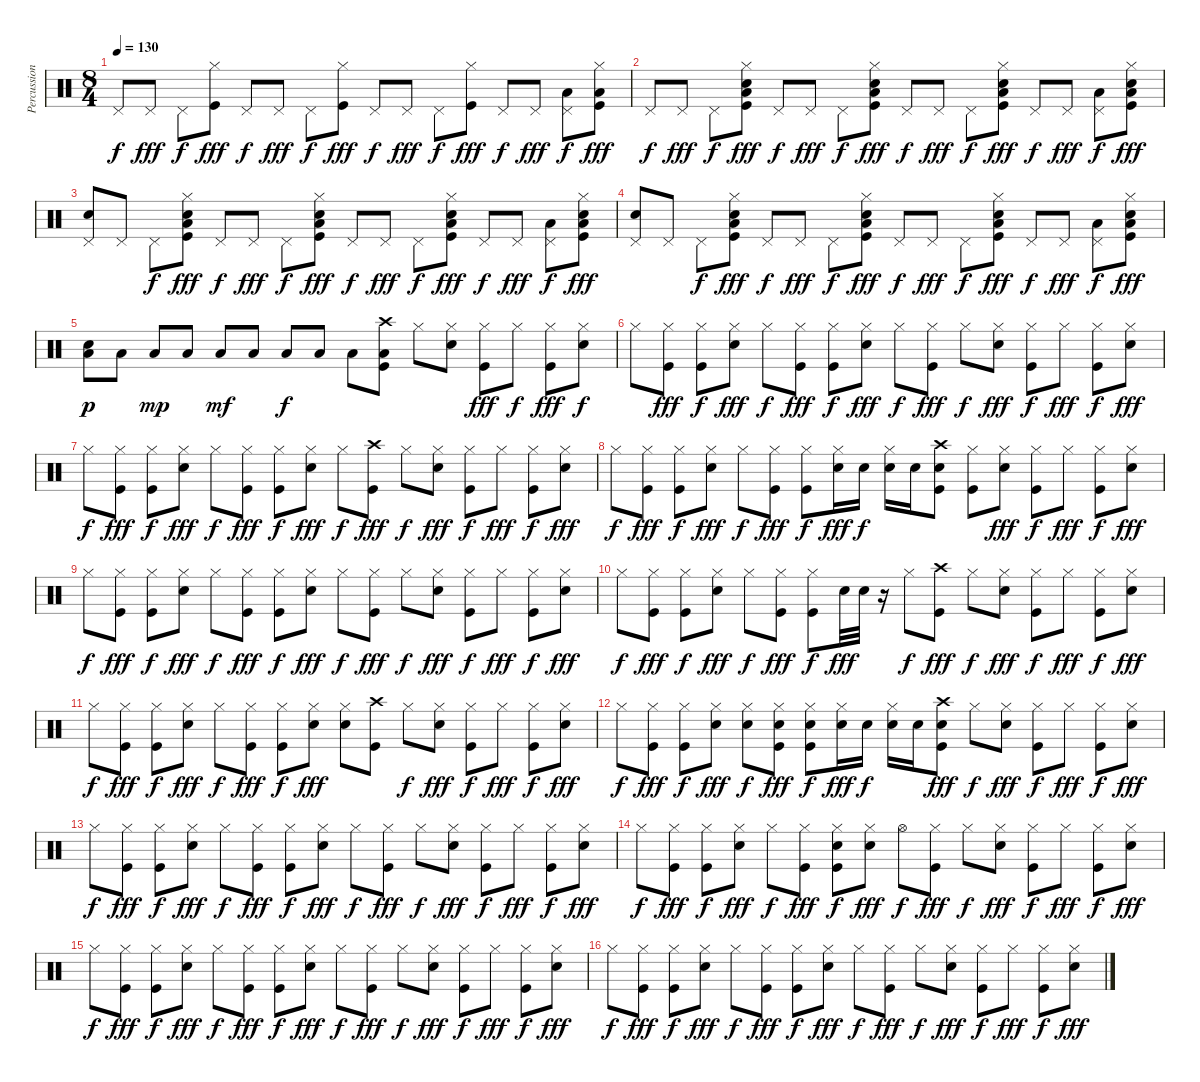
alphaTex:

\track ("Percussion" "Percussion") {instrument percussion}
\staff {score}
\articulation defaults
\ts (8 4)
\tempo 130
\clef neutral
\ks c "Pedal Hi-Hat (hit)".8{dy f} "Pedal Hi-Hat (hit)".8{dy fff} "Pedal Hi-Hat (hit)".8{dy f}
("Hi-Hat (closed)" "Kick (hit)").8{dy fff} "Pedal Hi-Hat (hit)".8{dy f} "Pedal Hi-Hat (hit)".8{dy fff} "Pedal Hi-Hat (hit)".8{dy f} ("Hi-Hat (closed)" "Kick (hit)").8{dy fff} "Pedal Hi-Hat (hit)".8{dy f} "Pedal Hi-Hat (hit)".8{dy fff} "Pedal Hi-Hat (hit)".8{dy f} ("Hi-Hat (closed)" "Kick (hit)").8{dy fff} "Pedal Hi-Hat (hit)".8{dy f} "Pedal Hi-Hat (hit)".8{dy fff} ("Pedal Hi-Hat (hit)" "Low Tom (hit)").8{dy f} ("Hi-Hat (closed)" "Low Floor Tom (hit)" "Kick (hit)").8{dy fff} |
"Pedal Hi-Hat (hit)".8{dy f} "Pedal Hi-Hat (hit)".8{dy fff} "Pedal Hi-Hat (hit)".8{dy f} ("Hi-Hat (closed)" "Hand Clap (hit)" "Low Floor Tom (hit)" "Kick (hit)").8{dy fff} "Pedal Hi-Hat (hit)".8{dy f} "Pedal Hi-Hat (hit)".8{dy fff} "Pedal Hi-Hat (hit)".8{dy f} ("Hi-Hat (closed)" "Hand Clap (hit)" "Low Floor Tom (hit)" "Kick (hit)").8{dy fff} "Pedal Hi-Hat (hit)".8{dy f} "Pedal Hi-Hat (hit)".8{dy fff} "Pedal Hi-Hat (hit)".8{dy f} ("Hi-Hat (closed)" "Hand Clap (hit)" "Low Floor Tom (hit)" "Kick (hit)").8{dy fff} "Pedal Hi-Hat (hit)".8{dy f} "Pedal Hi-Hat (hit)".8{dy fff} ("Pedal Hi-Hat (hit)" "Low Tom (hit)").8{dy f} ("Hi-Hat (closed)" "Hand Clap (hit)" "Low Floor Tom (hit)" "Kick (hit)").8{dy fff} |
("Pedal Hi-Hat (hit)" "Hand Clap (hit)").8 "Pedal Hi-Hat (hit)".8 "Pedal Hi-Hat (hit)".8{dy f} ("Hi-Hat (closed)" "Hand Clap (hit)" "Low Floor Tom (hit)" "Kick (hit)").8{dy fff} "Pedal Hi-Hat (hit)".8{dy f} "Pedal Hi-Hat (hit)".8{dy fff} "Pedal Hi-Hat (hit)".8{dy f} ("Hi-Hat (closed)" "Hand Clap (hit)" "Low Floor Tom (hit)" "Kick (hit)").8{dy fff} "Pedal Hi-Hat (hit)".8{dy f} "Pedal Hi-Hat (hit)".8{dy fff} "Pedal Hi-Hat (hit)".8{dy f} ("Hi-Hat (closed)" "Hand Clap (hit)" "Low Floor Tom (hit)" "Kick (hit)").8{dy fff} "Pedal Hi-Hat (hit)".8{dy f} "Pedal Hi-Hat (hit)".8{dy fff} ("Pedal Hi-Hat (hit)" "Low Tom (hit)").8{dy f} ("Hi-Hat (closed)" "Hand Clap (hit)" "Low Floor Tom (hit)" "Kick (hit)").8{dy fff} |
("Pedal Hi-Hat (hit)" "Hand Clap (hit)").8 "Pedal Hi-Hat (hit)".8 "Pedal Hi-Hat (hit)".8{dy f} ("Hi-Hat (closed)" "Hand Clap (hit)" "Low Floor Tom (hit)" "Kick (hit)").8{dy fff} "Pedal Hi-Hat (hit)".8{dy f} "Pedal Hi-Hat (hit)".8{dy fff} "Pedal Hi-Hat (hit)".8{dy f} ("Hi-Hat (closed)" "Hand Clap (hit)" "Low Floor Tom (hit)" "Kick (hit)").8{dy fff} "Pedal Hi-Hat (hit)".8{dy f} "Pedal Hi-Hat (hit)".8{dy fff} "Pedal Hi-Hat (hit)".8{dy f} ("Hi-Hat (closed)" "Hand Clap (hit)" "Low Floor Tom (hit)" "Kick (hit)").8{dy fff} "Pedal Hi-Hat (hit)".8{dy f} "Pedal Hi-Hat (hit)".8{dy fff} ("Pedal Hi-Hat (hit)" "Low Tom (hit)").8{dy f} ("Hi-Hat (closed)" "Hand Clap (hit)" "Low Floor Tom (hit)" "Kick (hit)").8{dy fff} |
("Hand Clap (hit)" "Low Floor Tom (hit)").8{dy p} "Low Floor Tom (hit)".8 "Low Floor Tom (hit)".8{dy mp} "Low Floor Tom (hit)".8 "Low Floor Tom (hit)".8{dy mf} "Low Floor Tom (hit)".8 "Low Floor Tom (hit)".8{dy f} "Low Floor Tom (hit)".8 "Low Floor Tom (hit)".8 ("Crash high (hit)" "Low Floor Tom (hit)" "Kick (hit)").8 "Hi-Hat (closed)".8 ("Hi-Hat (closed)" "Electric Snare (hit)").8 ("Hi-Hat (closed)" "Kick (hit)").8{dy fff} "Hi-Hat (closed)".8{dy f} ("Hi-Hat (closed)" "Kick (hit)").8{dy fff} ("Hi-Hat (closed)" "Electric Snare (hit)").8{dy f} |
"Hi-Hat (closed)".8 ("Hi-Hat (closed)" "Kick (hit)").8{dy fff} ("Hi-Hat (closed)" "Kick (hit)").8{dy f} ("Hi-Hat (closed)" "Electric Snare (hit)").8{dy fff} "Hi-Hat (closed)".8{dy f} ("Hi-Hat (closed)" "Kick (hit)").8{dy fff} ("Hi-Hat (closed)" "Kick (hit)").8{dy f} ("Hi-Hat (closed)" "Electric Snare (hit)").8{dy fff} "Hi-Hat (closed)".8{dy f} ("Hi-Hat (closed)" "Kick (hit)").8{dy fff} "Hi-Hat (closed)".8{dy f} ("Hi-Hat (closed)" "Electric Snare (hit)").8{dy fff} ("Hi-Hat (closed)" "Kick (hit)").8{dy f} "Hi-Hat (closed)".8{dy fff} ("Hi-Hat (closed)" "Kick (hit)").8{dy f} ("Hi-Hat (closed)" "Electric Snare (hit)").8{dy fff} |
"Hi-Hat (closed)".8{dy f} ("Hi-Hat (closed)" "Kick (hit)").8{dy fff} ("Hi-Hat (closed)" "Kick (hit)").8{dy f} ("Hi-Hat (closed)" "Electric Snare (hit)").8{dy fff} "Hi-Hat (closed)".8{dy f} ("Hi-Hat (closed)" "Kick (hit)").8{dy fff} ("Hi-Hat (closed)" "Kick (hit)").8{dy f} ("Hi-Hat (closed)" "Electric Snare (hit)").8{dy fff} "Hi-Hat (closed)".8{dy f} ("Crash high (hit)" "Kick (hit)").8{dy fff} "Hi-Hat (closed)".8{dy f} ("Hi-Hat (closed)" "Electric Snare (hit)").8{dy fff} ("Hi-Hat (closed)" "Kick (hit)").8{dy f} "Hi-Hat (closed)".8{dy fff} ("Hi-Hat (closed)" "Kick (hit)").8{dy f} ("Hi-Hat (closed)" "Electric Snare (hit)").8{dy fff} |
"Hi-Hat (closed)".8{dy f} ("Hi-Hat (closed)" "Kick (hit)").8{dy fff} ("Hi-Hat (closed)" "Kick (hit)").8{dy f} ("Hi-Hat (closed)" "Electric Snare (hit)").8{dy fff} "Hi-Hat (closed)".8{dy f} ("Hi-Hat (closed)" "Kick (hit)").8{dy fff} ("Hi-Hat (closed)" "Kick (hit)").8{dy f} ("Hi-Hat (closed)" "Electric Snare (hit)").16{dy fff} "Electric Snare (hit)".16{dy f} ("Hi-Hat (closed)" "Electric Snare (hit)").16 "Electric Snare (hit)".16 ("Crash high (hit)" "Electric Snare (hit)" "Kick (hit)").8 ("Hi-Hat (closed)" "Kick (hit)").8 ("Hi-Hat (closed)" "Electric Snare (hit)").8{dy fff} ("Hi-Hat (closed)" "Kick (hit)").8{dy f} "Hi-Hat (closed)".8{dy fff} ("Hi-Hat (closed)" "Kick (hit)").8{dy f} ("Hi-Hat (closed)" "Electric Snare (hit)").8{dy fff} |
"Hi-Hat (closed)".8{dy f} ("Hi-Hat (closed)" "Kick (hit)").8{dy fff} ("Hi-Hat (closed)" "Kick (hit)").8{dy f} ("Hi-Hat (closed)" "Electric Snare (hit)").8{dy fff} "Hi-Hat (closed)".8{dy f} ("Hi-Hat (closed)" "Kick (hit)").8{dy fff} ("Hi-Hat (closed)" "Kick (hit)").8{dy f} ("Hi-Hat (closed)" "Electric Snare (hit)").8{dy fff} "Hi-Hat (closed)".8{dy f} ("Hi-Hat (closed)" "Kick (hit)").8{dy fff} "Hi-Hat (closed)".8{dy f} ("Hi-Hat (closed)" "Electric Snare (hit)").8{dy fff} ("Hi-Hat (closed)" "Kick (hit)").8{dy f} "Hi-Hat (closed)".8{dy fff} ("Hi-Hat (closed)" "Kick (hit)").8{dy f} ("Hi-Hat (closed)" "Electric Snare (hit)").8{dy fff} |
"Hi-Hat (closed)".8{dy f} ("Hi-Hat (closed)" "Kick (hit)").8{dy fff} ("Hi-Hat (closed)" "Kick (hit)").8{dy f} ("Hi-Hat (closed)" "Electric Snare (hit)").8{dy fff} "Hi-Hat (closed)".8{dy f} ("Hi-Hat (closed)" "Kick (hit)").8{dy fff} ("Hi-Hat (closed)" "Kick (hit)").8{dy f} "Electric Snare (hit)".32{dy fff} "Electric Snare (hit)".32 r.16 "Hi-Hat (closed)".8{dy f} ("Crash high (hit)" "Kick (hit)").8{dy fff} "Hi-Hat (closed)".8{dy f} ("Hi-Hat (closed)" "Electric Snare (hit)").8{dy fff} ("Hi-Hat (closed)" "Kick (hit)").8{dy f} "Hi-Hat (closed)".8{dy fff} ("Hi-Hat (closed)" "Kick (hit)").8{dy f} ("Hi-Hat (closed)" "Electric Snare (hit)").8{dy fff} |
"Hi-Hat (closed)".8{dy f} ("Hi-Hat (closed)" "Kick (hit)").8{dy fff} ("Hi-Hat (closed)" "Kick (hit)").8{dy f} ("Hi-Hat (closed)" "Electric Snare (hit)").8{dy fff} "Hi-Hat (closed)".8{dy f} ("Hi-Hat (closed)" "Kick (hit)").8{dy fff} ("Hi-Hat (closed)" "Kick (hit)").8{dy f} ("Hi-Hat (closed)" "Electric Snare (hit)").8{dy fff} ("Hi-Hat (closed)" "Electric Snare (hit)").8 ("Crash high (hit)" "Kick (hit)").8 "Hi-Hat (closed)".8{dy f} ("Hi-Hat (closed)" "Electric Snare (hit)").8{dy fff} ("Hi-Hat (closed)" "Kick (hit)").8{dy f} "Hi-Hat (closed)".8{dy fff} ("Hi-Hat (closed)" "Kick (hit)").8{dy f} ("Hi-Hat (closed)" "Electric Snare (hit)").8{dy fff} |
"Hi-Hat (closed)".8{dy f} ("Hi-Hat (closed)" "Kick (hit)").8{dy fff} ("Hi-Hat (closed)" "Kick (hit)").8{dy f} ("Hi-Hat (closed)" "Electric Snare (hit)").8{dy fff} ("Hi-Hat (closed)" "Electric Snare (hit)").8{dy f} ("Hi-Hat (closed)" "Electric Snare (hit)" "Kick (hit)").8{dy fff} ("Hi-Hat (closed)" "Electric Snare (hit)" "Kick (hit)").8{dy f} ("Hi-Hat (closed)" "Electric Snare (hit)").16{dy fff} "Electric Snare (hit)".16{dy f} ("Hi-Hat (closed)" "Electric Snare (hit)").16 "Electric Snare (hit)".16 ("Crash high (hit)" "Electric Snare (hit)" "Kick (hit)").8{dy fff} "Hi-Hat (closed)".8{dy f} ("Hi-Hat (closed)" "Electric Snare (hit)").8{dy fff} ("Hi-Hat (closed)" "Kick (hit)").8{dy f} "Hi-Hat (closed)".8{dy fff} ("Hi-Hat (closed)" "Kick (hit)").8{dy f} ("Hi-Hat (closed)" "Electric Snare (hit)").8{dy fff} |
"Hi-Hat (closed)".8{dy f} ("Hi-Hat (closed)" "Kick (hit)").8{dy fff} ("Hi-Hat (closed)" "Kick (hit)").8{dy f} ("Hi-Hat (closed)" "Electric Snare (hit)").8{dy fff} "Hi-Hat (closed)".8{dy f} ("Hi-Hat (closed)" "Kick (hit)").8{dy fff} ("Hi-Hat (closed)" "Kick (hit)").8{dy f} ("Hi-Hat (closed)" "Electric Snare (hit)").8{dy fff} "Hi-Hat (closed)".8{dy f} ("Hi-Hat (closed)" "Kick (hit)").8{dy fff} "Hi-Hat (closed)".8{dy f} ("Hi-Hat (closed)" "Electric Snare (hit)").8{dy fff} ("Hi-Hat (closed)" "Kick (hit)").8{dy f} "Hi-Hat (closed)".8{dy fff} ("Hi-Hat (closed)" "Kick (hit)").8{dy f} ("Hi-Hat (closed)" "Electric Snare (hit)").8{dy fff} |
"Hi-Hat (closed)".8{dy f} ("Hi-Hat (closed)" "Kick (hit)").8{dy fff} ("Hi-Hat (closed)" "Kick (hit)").8{dy f} ("Hi-Hat (closed)" "Electric Snare (hit)").8{dy fff} "Hi-Hat (closed)".8{dy f} ("Hi-Hat (closed)" "Kick (hit)").8{dy fff} ("Hi-Hat (closed)" "Electric Snare (hit)" "Kick (hit)").8{dy f} ("Hi-Hat (closed)" "Electric Snare (hit)").8{dy fff} "Hi-Hat (open)".8{dy f} ("Hi-Hat (closed)" "Kick (hit)").8{dy fff} "Hi-Hat (closed)".8{dy f} ("Hi-Hat (closed)" "Electric Snare (hit)").8{dy fff} ("Hi-Hat (closed)" "Kick (hit)").8{dy f} "Hi-Hat (closed)".8{dy fff} ("Hi-Hat (closed)" "Kick (hit)").8{dy f} ("Hi-Hat (closed)" "Electric Snare (hit)").8{dy fff} |
"Hi-Hat (closed)".8{dy f} ("Hi-Hat (closed)" "Kick (hit)").8{dy fff} ("Hi-Hat (closed)" "Kick (hit)").8{dy f} ("Hi-Hat (closed)" "Electric Snare (hit)").8{dy fff} "Hi-Hat (closed)".8{dy f} ("Hi-Hat (closed)" "Kick (hit)").8{dy fff} ("Hi-Hat (closed)" "Kick (hit)").8{dy f} ("Hi-Hat (closed)" "Electric Snare (hit)").8{dy fff} "Hi-Hat (closed)".8{dy f} ("Hi-Hat (closed)" "Kick (hit)").8{dy fff} "Hi-Hat (closed)".8{dy f} ("Hi-Hat (closed)" "Electric Snare (hit)").8{dy fff} ("Hi-Hat (closed)" "Kick (hit)").8{dy f} "Hi-Hat (closed)".8{dy fff} ("Hi-Hat (closed)" "Kick (hit)").8{dy f} ("Hi-Hat (closed)" "Electric Snare (hit)").8{dy fff} |
"Hi-Hat (closed)".8{dy f} ("Hi-Hat (closed)" "Kick (hit)").8{dy fff} ("Hi-Hat (closed)" "Kick (hit)").8{dy f} ("Hi-Hat (closed)" "Electric Snare (hit)").8{dy fff} "Hi-Hat (closed)".8{dy f} ("Hi-Hat (closed)" "Kick (hit)").8{dy fff} ("Hi-Hat (closed)" "Kick (hit)").8{dy f} ("Hi-Hat (closed)" "Electric Snare (hit)").8{dy fff} "Hi-Hat (closed)".8{dy f} ("Hi-Hat (closed)" "Kick (hit)").8{dy fff} "Hi-Hat (closed)".8{dy f} ("Hi-Hat (closed)" "Electric Snare (hit)").8{dy fff} ("Hi-Hat (closed)" "Kick (hit)").8{dy f} "Hi-Hat (closed)".8{dy fff} ("Hi-Hat (closed)" "Kick (hit)").8{dy f} ("Hi-Hat (closed)" "Electric Snare (hit)").8{dy fff}
